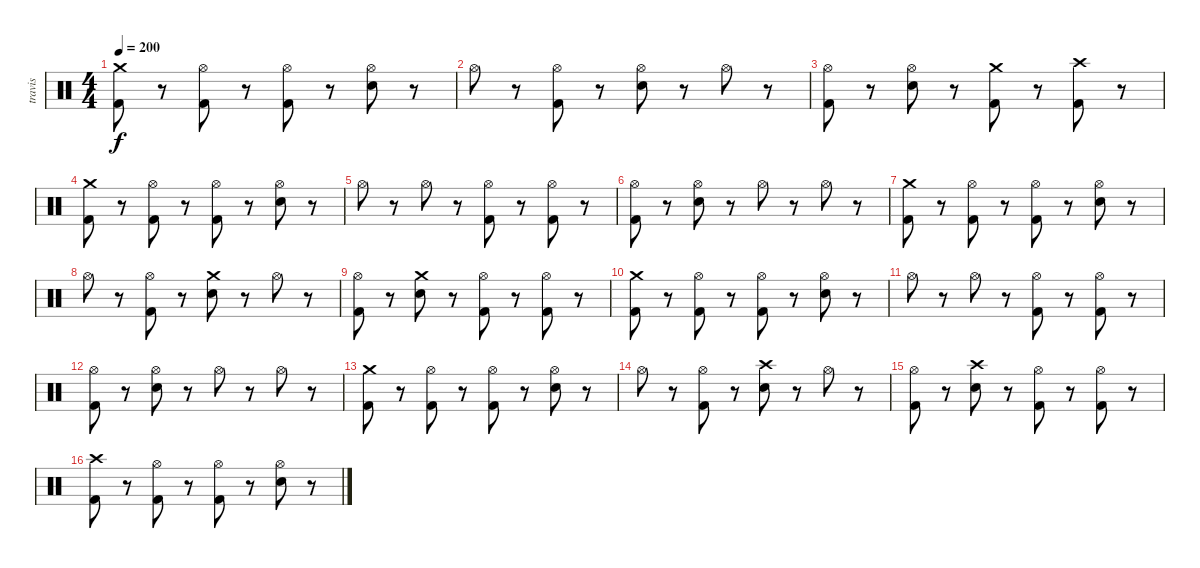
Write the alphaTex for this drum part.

\track ("travis" "travis") {instrument percussion}
\staff {score}
\articulation defaults
\ts (4 4)
\tempo 200
\clef neutral
\ks c
("Crash medium (hit)" "Kick (hit) 2").8{dy f} r.8 ("Hi-Hat (open)" "Kick (hit) 2").8 r.8 ("Hi-Hat (open)" "Kick (hit) 2").8 r.8 ("Hi-Hat (open)" "Electric Snare (hit)").8 r.8 |
"Hi-Hat (open)".8 r.8 ("Hi-Hat (open)" "Kick (hit) 2").8 r.8 ("Hi-Hat (open)" "Electric Snare (hit)").8 r.8 "Hi-Hat (open)".8 r.8 |
("Hi-Hat (open)" "Kick (hit) 2").8 r.8 ("Hi-Hat (open)" "Electric Snare (hit)").8 r.8 ("Crash medium (hit)" "Kick (hit) 2").8 r.8 ("Crash high (hit)" "Kick (hit) 2").8 r.8 |
("Crash medium (hit)" "Kick (hit) 2").8 r.8 ("Hi-Hat (open)" "Kick (hit) 2").8 r.8 ("Hi-Hat (open)" "Kick (hit) 2").8 r.8 ("Hi-Hat (open)" "Electric Snare (hit)").8 r.8 |
"Hi-Hat (open)".8 r.8 "Hi-Hat (open)".8 r.8 ("Hi-Hat (open)" "Kick (hit) 2").8 r.8 ("Hi-Hat (open)" "Kick (hit) 2").8 r.8 |
("Hi-Hat (open)" "Kick (hit) 2").8 r.8 ("Hi-Hat (open)" "Electric Snare (hit)").8 r.8 "Hi-Hat (open)".8 r.8 "Hi-Hat (open)".8 r.8 |
("Crash medium (hit)" "Kick (hit) 2").8 r.8 ("Hi-Hat (open)" "Kick (hit) 2").8 r.8 ("Hi-Hat (open)" "Kick (hit) 2").8 r.8 ("Hi-Hat (open)" "Electric Snare (hit)").8 r.8 |
"Hi-Hat (open)".8 r.8 ("Hi-Hat (open)" "Kick (hit) 2").8 r.8 ("Crash medium (hit)" "Electric Snare (hit)").8 r.8 "Hi-Hat (open)".8 r.8 |
("Hi-Hat (open)" "Kick (hit) 2").8 r.8 ("Crash medium (hit)" "Electric Snare (hit)").8 r.8 ("Hi-Hat (open)" "Kick (hit) 2").8 r.8 ("Hi-Hat (open)" "Kick (hit) 2").8 r.8 |
("Crash medium (hit)" "Kick (hit) 2").8 r.8 ("Hi-Hat (open)" "Kick (hit) 2").8 r.8 ("Hi-Hat (open)" "Kick (hit) 2").8 r.8 ("Hi-Hat (open)" "Electric Snare (hit)").8 r.8 |
"Hi-Hat (open)".8 r.8 "Hi-Hat (open)".8 r.8 ("Hi-Hat (open)" "Kick (hit) 2").8 r.8 ("Hi-Hat (open)" "Kick (hit) 2").8 r.8 |
("Hi-Hat (open)" "Kick (hit) 2").8 r.8 ("Hi-Hat (open)" "Electric Snare (hit)").8 r.8 "Hi-Hat (open)".8 r.8 "Hi-Hat (open)".8 r.8 |
("Crash medium (hit)" "Kick (hit) 2").8 r.8 ("Hi-Hat (open)" "Kick (hit) 2").8 r.8 ("Hi-Hat (open)" "Kick (hit) 2").8 r.8 ("Hi-Hat (open)" "Electric Snare (hit)").8 r.8 |
"Hi-Hat (open)".8 r.8 ("Hi-Hat (open)" "Kick (hit) 2").8 r.8 ("Crash high (hit)" "Electric Snare (hit)").8 r.8 "Hi-Hat (open)".8 r.8 |
("Hi-Hat (open)" "Kick (hit) 2").8 r.8 ("Crash high (hit)" "Electric Snare (hit)").8 r.8 ("Hi-Hat (open)" "Kick (hit) 2").8 r.8 ("Hi-Hat (open)" "Kick (hit) 2").8 r.8 |
("Crash high (hit)" "Kick (hit) 2").8 r.8 ("Hi-Hat (open)" "Kick (hit) 2").8 r.8 ("Hi-Hat (open)" "Kick (hit) 2").8 r.8 ("Hi-Hat (open)" "Electric Snare (hit)").8 r.8
